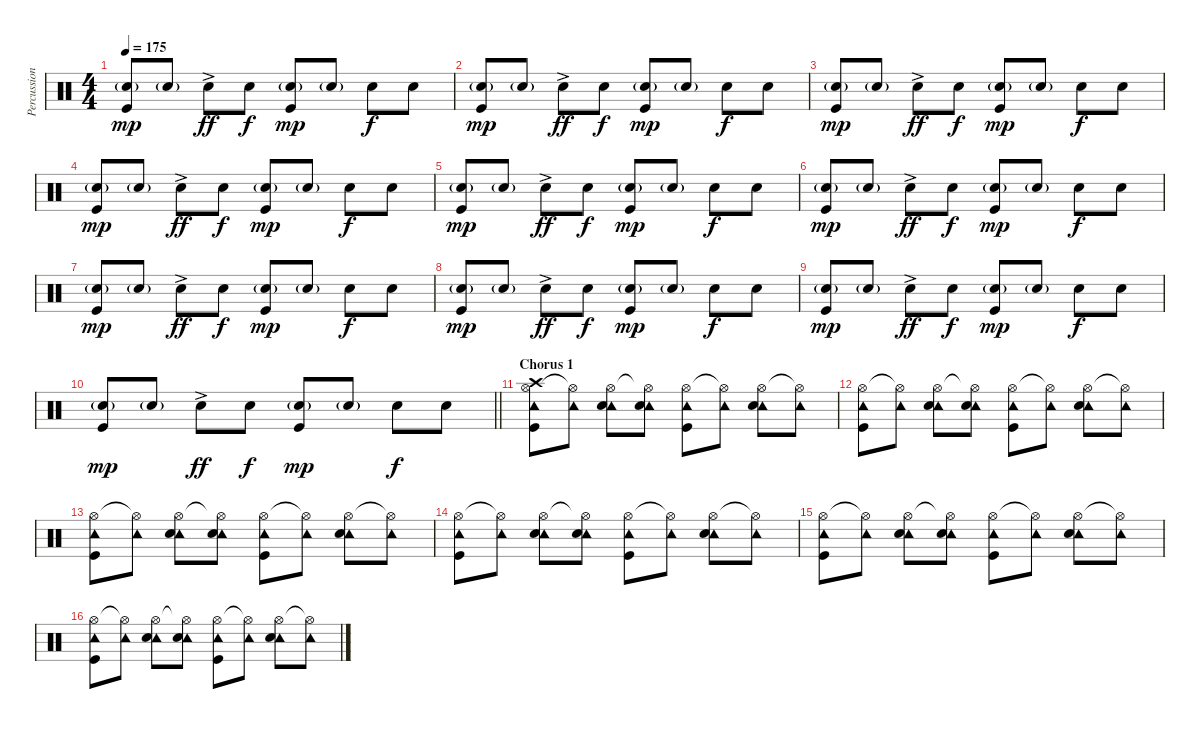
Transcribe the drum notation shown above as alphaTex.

\track ("Percussion" "Percussion") {instrument percussion}
\staff {score}
\articulation defaults
\ts (4 4)
\tempo 175
\clef neutral
\ks c
("Snare (hit) 2"{g} "Kick (hit)").8{dy mp} "Snare (hit) 2"{g}.8 "Snare (hit) 2"{ac}.8{dy ff} "Snare (hit) 2".8{dy f} ("Snare (hit) 2"{g} "Kick (hit)").8{dy mp} "Snare (hit) 2"{g}.8 "Snare (hit) 2".8{dy f} "Snare (hit) 2".8 |
("Snare (hit) 2"{g} "Kick (hit)").8{dy mp} "Snare (hit) 2"{g}.8 "Snare (hit) 2"{ac}.8{dy ff} "Snare (hit) 2".8{dy f} ("Snare (hit) 2"{g} "Kick (hit)").8{dy mp} "Snare (hit) 2"{g}.8 "Snare (hit) 2".8{dy f} "Snare (hit) 2".8 |
("Snare (hit) 2"{g} "Kick (hit)").8{dy mp} "Snare (hit) 2"{g}.8 "Snare (hit) 2"{ac}.8{dy ff} "Snare (hit) 2".8{dy f} ("Snare (hit) 2"{g} "Kick (hit)").8{dy mp} "Snare (hit) 2"{g}.8 "Snare (hit) 2".8{dy f} "Snare (hit) 2".8 |
("Snare (hit) 2"{g} "Kick (hit)").8{dy mp} "Snare (hit) 2"{g}.8 "Snare (hit) 2"{ac}.8{dy ff} "Snare (hit) 2".8{dy f} ("Snare (hit) 2"{g} "Kick (hit)").8{dy mp} "Snare (hit) 2"{g}.8 "Snare (hit) 2".8{dy f} "Snare (hit) 2".8 |
("Snare (hit) 2"{g} "Kick (hit)").8{dy mp} "Snare (hit) 2"{g}.8 "Snare (hit) 2"{ac}.8{dy ff} "Snare (hit) 2".8{dy f} ("Snare (hit) 2"{g} "Kick (hit)").8{dy mp} "Snare (hit) 2"{g}.8 "Snare (hit) 2".8{dy f} "Snare (hit) 2".8 |
("Snare (hit) 2"{g} "Kick (hit)").8{dy mp} "Snare (hit) 2"{g}.8 "Snare (hit) 2"{ac}.8{dy ff} "Snare (hit) 2".8{dy f} ("Snare (hit) 2"{g} "Kick (hit)").8{dy mp} "Snare (hit) 2"{g}.8 "Snare (hit) 2".8{dy f} "Snare (hit) 2".8 |
("Snare (hit) 2"{g} "Kick (hit)").8{dy mp} "Snare (hit) 2"{g}.8 "Snare (hit) 2"{ac}.8{dy ff} "Snare (hit) 2".8{dy f} ("Snare (hit) 2"{g} "Kick (hit)").8{dy mp} "Snare (hit) 2"{g}.8 "Snare (hit) 2".8{dy f} "Snare (hit) 2".8 |
("Snare (hit) 2"{g} "Kick (hit)").8{dy mp} "Snare (hit) 2"{g}.8 "Snare (hit) 2"{ac}.8{dy ff} "Snare (hit) 2".8{dy f} ("Snare (hit) 2"{g} "Kick (hit)").8{dy mp} "Snare (hit) 2"{g}.8 "Snare (hit) 2".8{dy f} "Snare (hit) 2".8 |
("Snare (hit) 2"{g} "Kick (hit)").8{dy mp} "Snare (hit) 2"{g}.8 "Snare (hit) 2"{ac}.8{dy ff} "Snare (hit) 2".8{dy f} ("Snare (hit) 2"{g} "Kick (hit)").8{dy mp} "Snare (hit) 2"{g}.8 "Snare (hit) 2".8{dy f} "Snare (hit) 2".8 |
\barLineRight lightlight
("Snare (hit) 2"{g} "Kick (hit)").8{dy mp} "Snare (hit) 2"{g}.8 "Snare (hit) 2"{ac}.8{dy ff} "Snare (hit) 2".8{dy f} ("Snare (hit) 2"{g} "Kick (hit)").8{dy mp} "Snare (hit) 2"{g}.8 "Snare (hit) 2".8{dy f} "Snare (hit) 2".8 |
\section ("" "Chorus 1")
("Hi-Hat (open)" "Tambourine (hit)" "Crash high (hit)" "Kick (hit)").8 ("Hi-Hat (open)"{t} "Tambourine (hit)").8 ("Hi-Hat (open)" "Tambourine (hit)" "Snare (hit) 2").8 ("Hi-Hat (open)"{t} "Tambourine (hit)" "Snare (hit) 2").8 ("Hi-Hat (open)" "Tambourine (hit)" "Kick (hit)").8 ("Hi-Hat (open)"{t} "Tambourine (hit)").8 ("Hi-Hat (open)" "Tambourine (hit)" "Snare (hit) 2").8 ("Hi-Hat (open)"{t} "Tambourine (hit)").8 |
("Hi-Hat (open)" "Tambourine (hit)" "Kick (hit)").8 ("Hi-Hat (open)"{t} "Tambourine (hit)").8 ("Hi-Hat (open)" "Tambourine (hit)" "Snare (hit) 2").8 ("Hi-Hat (open)"{t} "Tambourine (hit)" "Snare (hit) 2").8 ("Hi-Hat (open)" "Tambourine (hit)" "Kick (hit)").8 ("Hi-Hat (open)"{t} "Tambourine (hit)").8 ("Hi-Hat (open)" "Tambourine (hit)" "Snare (hit) 2").8 ("Hi-Hat (open)"{t} "Tambourine (hit)").8 |
("Hi-Hat (open)" "Tambourine (hit)" "Kick (hit)").8 ("Hi-Hat (open)"{t} "Tambourine (hit)").8 ("Hi-Hat (open)" "Tambourine (hit)" "Snare (hit) 2").8 ("Hi-Hat (open)"{t} "Tambourine (hit)" "Snare (hit) 2").8 ("Hi-Hat (open)" "Tambourine (hit)" "Kick (hit)").8 ("Hi-Hat (open)"{t} "Tambourine (hit)").8 ("Hi-Hat (open)" "Tambourine (hit)" "Snare (hit) 2").8 ("Hi-Hat (open)"{t} "Tambourine (hit)").8 |
("Hi-Hat (open)" "Tambourine (hit)" "Kick (hit)").8 ("Hi-Hat (open)"{t} "Tambourine (hit)").8 ("Hi-Hat (open)" "Tambourine (hit)" "Snare (hit) 2").8 ("Hi-Hat (open)"{t} "Tambourine (hit)" "Snare (hit) 2").8 ("Hi-Hat (open)" "Tambourine (hit)" "Kick (hit)").8 ("Hi-Hat (open)"{t} "Tambourine (hit)").8 ("Hi-Hat (open)" "Tambourine (hit)" "Snare (hit) 2").8 ("Hi-Hat (open)"{t} "Tambourine (hit)").8 |
("Hi-Hat (open)" "Tambourine (hit)" "Kick (hit)").8 ("Hi-Hat (open)"{t} "Tambourine (hit)").8 ("Hi-Hat (open)" "Tambourine (hit)" "Snare (hit) 2").8 ("Hi-Hat (open)"{t} "Tambourine (hit)" "Snare (hit) 2").8 ("Hi-Hat (open)" "Tambourine (hit)" "Kick (hit)").8 ("Hi-Hat (open)"{t} "Tambourine (hit)").8 ("Hi-Hat (open)" "Tambourine (hit)" "Snare (hit) 2").8 ("Hi-Hat (open)"{t} "Tambourine (hit)").8 |
("Hi-Hat (open)" "Tambourine (hit)" "Kick (hit)").8 ("Hi-Hat (open)"{t} "Tambourine (hit)").8 ("Hi-Hat (open)" "Tambourine (hit)" "Snare (hit) 2").8 ("Hi-Hat (open)"{t} "Tambourine (hit)" "Snare (hit) 2").8 ("Hi-Hat (open)" "Tambourine (hit)" "Kick (hit)").8 ("Hi-Hat (open)"{t} "Tambourine (hit)").8 ("Hi-Hat (open)" "Tambourine (hit)" "Snare (hit) 2").8 ("Hi-Hat (open)"{t} "Tambourine (hit)").8
